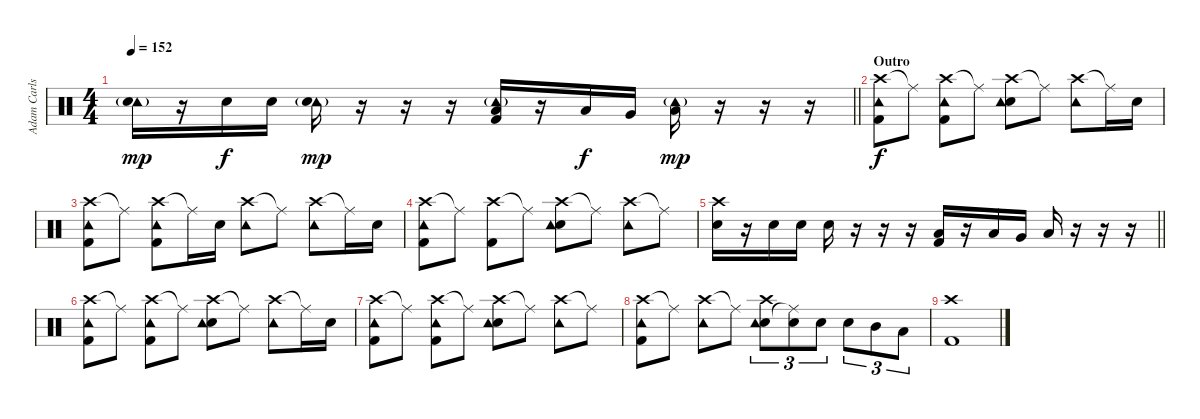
\track ("Adam Carlson" "Adam Carls") {instrument percussion}
\staff {score}
\articulation defaults
\ts (4 4)
\tempo 152
\clef neutral
\barLineRight lightlight
\ks c
("Tambourine (hit)"{g} "Snare (hit) 2").16{dy mp} r.16 "Snare (hit) 2".16{dy f} "Snare (hit) 2".16 ("Tambourine (hit)"{g} "Snare (hit) 2").16{dy mp} r.16 r.16 r.16 ("Tambourine (hit)"{g} "Low Tom (hit)" "Kick (hit) 2").16{bd 120} r.16 "Low Tom (hit)".16{dy f} "Very Low Tom (hit)".16 ("Tambourine (hit)"{g} "Low Tom (hit)").16{dy mp} r.16 r.16 r.16 |
\section ("" "Outro")
("Crash high (hit)" "Tambourine (hit)" "Kick (hit) 2").8{dy f} "Ride (middle)"{t}.8 ("Crash high (hit)" "Tambourine (hit)" "Kick (hit) 2").8 "Ride (middle)"{t}.8 ("Crash high (hit)" "Snare (hit) 2" "Tambourine (hit)").8 "Ride (middle)"{t}.8 ("Crash high (hit)" "Tambourine (hit)").8 "Ride (middle)"{t}.16 "Snare (hit) 2".16 |
("Crash high (hit)" "Tambourine (hit)" "Kick (hit) 2").8 "Ride (middle)"{t}.8 ("Crash high (hit)" "Tambourine (hit)" "Kick (hit) 2").8 "Ride (middle)"{t}.16 "Snare (hit) 2".16 ("Crash high (hit)" "Tambourine (hit)").8 "Ride (middle)"{t}.8 ("Crash high (hit)" "Tambourine (hit)").8 "Ride (middle)"{t}.16 "Snare (hit) 2".16 |
("Crash high (hit)" "Tambourine (hit)" "Kick (hit) 2").8 "Ride (middle)"{t}.8 ("Crash high (hit)" "Kick (hit) 2").8 "Ride (middle)"{t}.8 ("Crash high (hit)" "Snare (hit) 2" "Tambourine (hit)").8 "Ride (middle)"{t}.8 ("Crash high (hit)" "Tambourine (hit)").8 "Ride (middle)"{t}.8 |
\barLineRight lightlight
("Crash high (hit)" "Snare (hit) 2").16 r.16 "Snare (hit) 2".16 "Snare (hit) 2".16 "Snare (hit) 2".16 r.16 r.16 r.16 ("Low Tom (hit)" "Kick (hit) 2").16{bd 120} r.16 "Low Tom (hit)".16 "Very Low Tom (hit)".16 "Low Tom (hit)".16 r.16 r.16 r.16 |
("Crash high (hit)" "Tambourine (hit)" "Kick (hit) 2").8 "Ride (middle)"{t}.8 ("Crash high (hit)" "Tambourine (hit)" "Kick (hit) 2").8 "Ride (middle)"{t}.8 ("Crash high (hit)" "Snare (hit) 2" "Tambourine (hit)").8 "Ride (middle)"{t}.8 ("Crash high (hit)" "Tambourine (hit)").8 "Ride (middle)"{t}.16 "Snare (hit) 2".16 |
("Crash high (hit)" "Tambourine (hit)" "Kick (hit) 2").8 "Ride (middle)"{t}.8 ("Crash high (hit)" "Tambourine (hit)" "Kick (hit) 2").8 "Ride (middle)"{t}.8 ("Crash high (hit)" "Snare (hit) 2" "Tambourine (hit)").8 "Ride (middle)"{t}.8 ("Crash high (hit)" "Tambourine (hit)").8 "Ride (middle)"{t}.8 |
("Crash high (hit)" "Tambourine (hit)" "Kick (hit) 2").8 "Ride (middle)"{t}.8 ("Crash high (hit)" "Tambourine (hit)").8 "Ride (middle)"{t}.8 ("Crash high (hit)" "Snare (hit) 2" "Tambourine (hit)").8{tu (3 2)} ("Snare (hit) 2" "Ride (middle)"{t}).8{tu (3 2)} "Snare (hit) 2".8{tu (3 2)} "Snare (hit) 2".8{tu (3 2)} "Mid Tom (hit)".8{tu (3 2)} "Low Tom (hit)".8{tu (3 2)} |
("Crash high (hit)" "Kick (hit) 2").1
